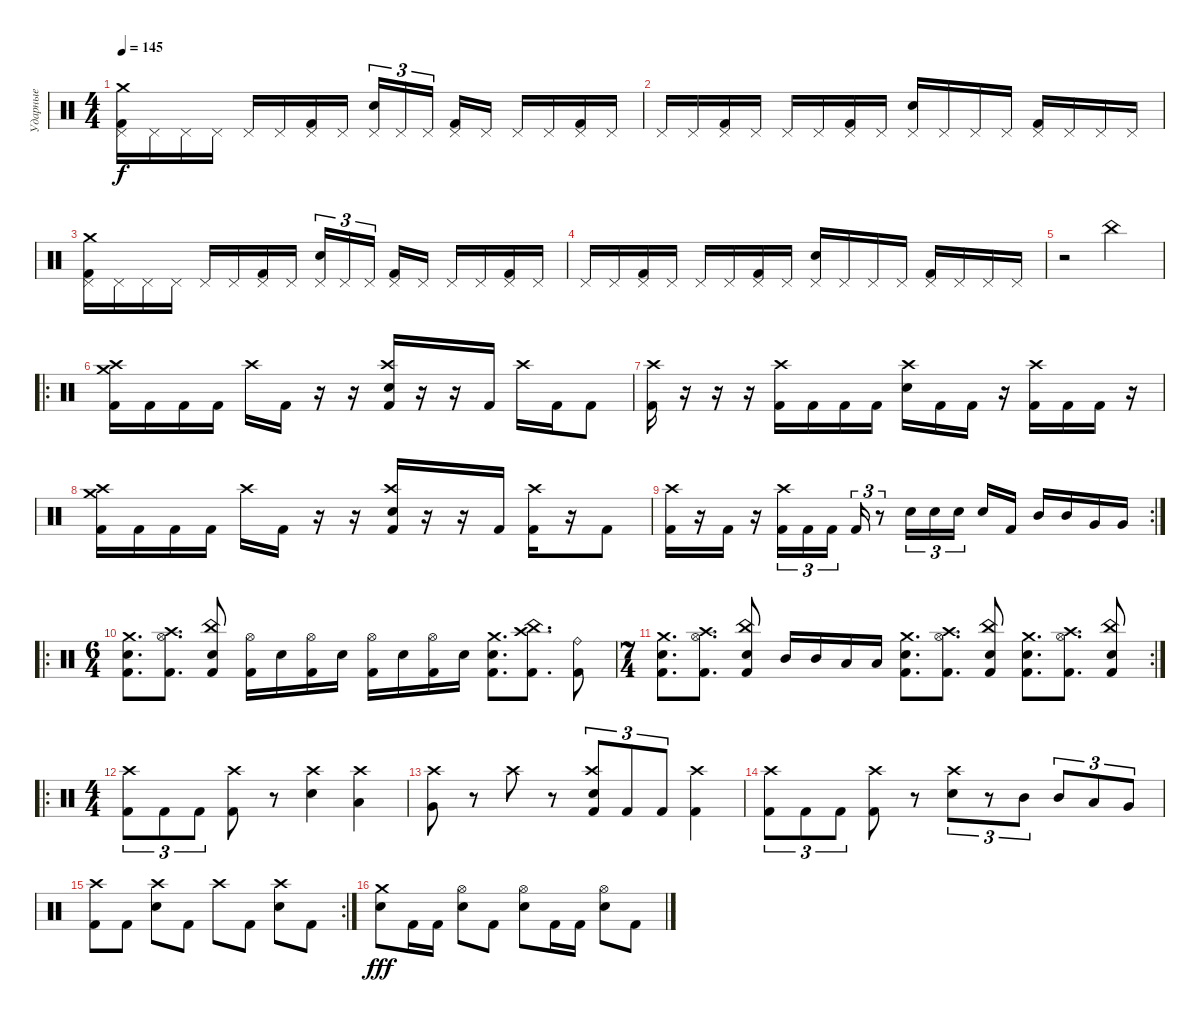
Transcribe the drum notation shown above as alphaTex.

\track ("Ударные" "Ударные") {instrument percussion}
\staff {score}
\articulation defaults
\ts (4 4)
\tempo 145
\clef neutral
\ks c
("Crash medium (hit)" "Pedal Hi-Hat (hit)" "Kick (hit) 2").16{dy f} "Pedal Hi-Hat (hit)".16 "Pedal Hi-Hat (hit)".16 "Pedal Hi-Hat (hit)".16 "Pedal Hi-Hat (hit)".16 "Pedal Hi-Hat (hit)".16 ("Pedal Hi-Hat (hit)" "Kick (hit) 2").16 "Pedal Hi-Hat (hit)".16 ("Hand Clap (hit)" "Pedal Hi-Hat (hit)").16{tu (3 2)} "Pedal Hi-Hat (hit)".16{tu (3 2)} "Pedal Hi-Hat (hit)".16{tu (3 2) beam splitsecondary} ("Pedal Hi-Hat (hit)" "Kick (hit) 2").16 "Pedal Hi-Hat (hit)".16 "Pedal Hi-Hat (hit)".16 "Pedal Hi-Hat (hit)".16 ("Pedal Hi-Hat (hit)" "Kick (hit) 2").16 "Pedal Hi-Hat (hit)".16 |
"Pedal Hi-Hat (hit)".16 "Pedal Hi-Hat (hit)".16 ("Pedal Hi-Hat (hit)" "Kick (hit) 2").16 "Pedal Hi-Hat (hit)".16 "Pedal Hi-Hat (hit)".16 "Pedal Hi-Hat (hit)".16 ("Pedal Hi-Hat (hit)" "Kick (hit) 2").16 "Pedal Hi-Hat (hit)".16 ("Hand Clap (hit)" "Pedal Hi-Hat (hit)").16 "Pedal Hi-Hat (hit)".16 "Pedal Hi-Hat (hit)".16 "Pedal Hi-Hat (hit)".16 ("Pedal Hi-Hat (hit)" "Kick (hit) 2").16 "Pedal Hi-Hat (hit)".16 "Pedal Hi-Hat (hit)".16 "Pedal Hi-Hat (hit)".16 |
("Crash medium (hit)" "Pedal Hi-Hat (hit)" "Kick (hit) 2").16 "Pedal Hi-Hat (hit)".16 "Pedal Hi-Hat (hit)".16 "Pedal Hi-Hat (hit)".16 "Pedal Hi-Hat (hit)".16 "Pedal Hi-Hat (hit)".16 ("Pedal Hi-Hat (hit)" "Kick (hit) 2").16 "Pedal Hi-Hat (hit)".16 ("Hand Clap (hit)" "Pedal Hi-Hat (hit)").16{tu (3 2)} "Pedal Hi-Hat (hit)".16{tu (3 2)} "Pedal Hi-Hat (hit)".16{tu (3 2) beam splitsecondary} ("Pedal Hi-Hat (hit)" "Kick (hit) 2").16 "Pedal Hi-Hat (hit)".16 "Pedal Hi-Hat (hit)".16 "Pedal Hi-Hat (hit)".16 ("Pedal Hi-Hat (hit)" "Kick (hit) 2").16 "Pedal Hi-Hat (hit)".16 |
"Pedal Hi-Hat (hit)".16 "Pedal Hi-Hat (hit)".16 ("Pedal Hi-Hat (hit)" "Kick (hit) 2").16 "Pedal Hi-Hat (hit)".16 "Pedal Hi-Hat (hit)".16 "Pedal Hi-Hat (hit)".16 ("Pedal Hi-Hat (hit)" "Kick (hit) 2").16 "Pedal Hi-Hat (hit)".16 ("Hand Clap (hit)" "Pedal Hi-Hat (hit)").16 "Pedal Hi-Hat (hit)".16 "Pedal Hi-Hat (hit)".16 "Pedal Hi-Hat (hit)".16 ("Pedal Hi-Hat (hit)" "Kick (hit) 2").16 "Pedal Hi-Hat (hit)".16 "Pedal Hi-Hat (hit)".16 "Pedal Hi-Hat (hit)".16 |
r.2 "China (hit)".2 |
\ro
("Crash high (hit)" "Crash medium (hit)" "Kick (hit) 2").16 "Kick (hit) 2".16 "Kick (hit) 2".16 "Kick (hit) 2".16 "Crash high (hit)".16 "Kick (hit) 2".16 r.16 r.16 ("Crash high (hit)" "Snare (hit) 2" "Kick (hit) 2").16 r.16 r.16 "Kick (hit) 2".16 "Crash high (hit)".16 "Kick (hit) 2".16 "Kick (hit) 2".8 |
("Crash high (hit)" "Kick (hit) 2").16 r.16 r.16 r.16 ("Crash high (hit)" "Kick (hit) 2").16 "Kick (hit) 2".16 "Kick (hit) 2".16 "Kick (hit) 2".16 ("Crash high (hit)" "Snare (hit) 2").16 "Kick (hit) 2".16 "Kick (hit) 2".16 r.16 ("Crash high (hit)" "Kick (hit) 2").16 "Kick (hit) 2".16 "Kick (hit) 2".16 r.16 |
("Crash high (hit)" "Crash medium (hit)" "Kick (hit) 2").16 "Kick (hit) 2".16 "Kick (hit) 2".16 "Kick (hit) 2".16 "Crash high (hit)".16 "Kick (hit) 2".16 r.16 r.16 ("Crash high (hit)" "Snare (hit) 2" "Kick (hit) 2").16 r.16 r.16 "Kick (hit) 2".16 ("Crash high (hit)" "Kick (hit) 2").16 r.16 "Kick (hit) 2".8 |
\rc 2
("Crash high (hit)" "Kick (hit) 2").16 r.16 "Kick (hit) 2".16 r.16 ("Crash high (hit)" "Kick (hit) 2").16{tu (3 2)} "Kick (hit) 2".16{tu (3 2)} "Kick (hit) 2".16{tu (3 2) beam splitsecondary} "Kick (hit) 2".16{tu (3 2)} r.8{tu (3 2)} "Snare (hit) 2".16{tu (3 2)} "Snare (hit) 2".16{tu (3 2)} "Snare (hit) 2".16{tu (3 2) beam splitsecondary} "Snare (hit) 2".16 "Kick (hit) 2".16 "Mid Tom (hit)".16 "Mid Tom (hit)".16 "Very Low Tom (hit)".16 "Very Low Tom (hit)".16 |
\ro
\ts (6 4)
("Snare (hit) 2" "Crash medium (hit)" "Kick (hit) 2").8{d} ("Hi-Hat (open)" "Crash high (hit)" "Kick (hit) 2").8{d} ("China (hit)" "Snare (hit) 2" "Kick (hit) 2").8 ("Hi-Hat (open)" "Kick (hit) 2").16 "Snare (hit) 2".16 ("Hi-Hat (open)" "Kick (hit) 2").16 "Snare (hit) 2".16 ("Hi-Hat (open)" "Kick (hit) 2").16 "Snare (hit) 2".16 ("Hi-Hat (open)" "Kick (hit) 2").16 "Snare (hit) 2".16 ("Snare (hit) 2" "Crash medium (hit)" "Kick (hit) 2").8{d} ("China (hit)" "Crash high (hit)" "Kick (hit) 2").8{d} ("Ride (bell)" "Kick (hit) 2").8 |
\rc 2
\ts (7 4)
("Snare (hit) 2" "Crash medium (hit)" "Kick (hit) 2").8{d} ("Hi-Hat (open)" "Crash high (hit)" "Kick (hit) 2").8{d} ("China (hit)" "Snare (hit) 2" "Kick (hit) 2").8 "Mid Tom (hit)".16 "Mid Tom (hit)".16 "Low Tom (hit)".16 "Low Tom (hit)".16 ("Snare (hit) 2" "Crash medium (hit)" "Kick (hit) 2").8{d} ("Hi-Hat (open)" "Crash high (hit)" "Kick (hit) 2").8{d} ("China (hit)" "Snare (hit) 2" "Kick (hit) 2").8 ("Snare (hit) 2" "Crash medium (hit)" "Kick (hit) 2").8{d} ("Hi-Hat (open)" "Crash high (hit)" "Kick (hit) 2").8{d} ("China (hit)" "Snare (hit) 2" "Kick (hit) 2").8 |
\ro
\ts (4 4)
("Crash high (hit)" "Kick (hit) 2").8{tu (3 2)} "Kick (hit) 2".8{tu (3 2)} "Kick (hit) 2".8{tu (3 2)} ("Crash high (hit)" "Kick (hit) 2").8 r.8 ("Crash high (hit)" "Snare (hit) 2").4 ("Crash high (hit)" "Low Tom (hit)").4 |
("Crash high (hit)" "Very Low Tom (hit)").8 r.8 "Crash high (hit)".8 r.8 ("Crash high (hit)" "Snare (hit) 2" "Kick (hit) 2").8{tu (3 2)} "Kick (hit) 2".8{tu (3 2)} "Kick (hit) 2".8{tu (3 2)} ("Crash high (hit)" "Kick (hit) 2").4 |
("Crash high (hit)" "Kick (hit) 2").8{tu (3 2)} "Kick (hit) 2".8{tu (3 2)} "Kick (hit) 2".8{tu (3 2)} ("Crash high (hit)" "Kick (hit) 2").8 r.8 ("Crash high (hit)" "Snare (hit) 2").8{tu (3 2)} r.8{tu (3 2)} "Mid Tom (hit)".8{tu (3 2)} "Mid Tom (hit)".8{tu (3 2)} "Low Tom (hit)".8{tu (3 2)} "Very Low Tom (hit)".8{tu (3 2)} |
\rc 2
("Crash high (hit)" "Kick (hit) 2").8 "Kick (hit) 2".8 ("Crash high (hit)" "Snare (hit) 2").8 "Kick (hit) 2".8 "Crash high (hit)".8 "Kick (hit) 2".8 ("Crash high (hit)" "Snare (hit) 2").8 "Kick (hit) 2".8 |
("Crash medium (hit)" "Snare (hit) 2").8{dy fff} "Kick (hit) 2".16 "Kick (hit) 2".16 ("Hi-Hat (open)" "Snare (hit) 2").8 "Kick (hit) 2".8 ("Hi-Hat (open)" "Snare (hit) 2").8 "Kick (hit) 2".16 "Kick (hit) 2".16 ("Hi-Hat (open)" "Snare (hit) 2").8 "Kick (hit) 2".8
